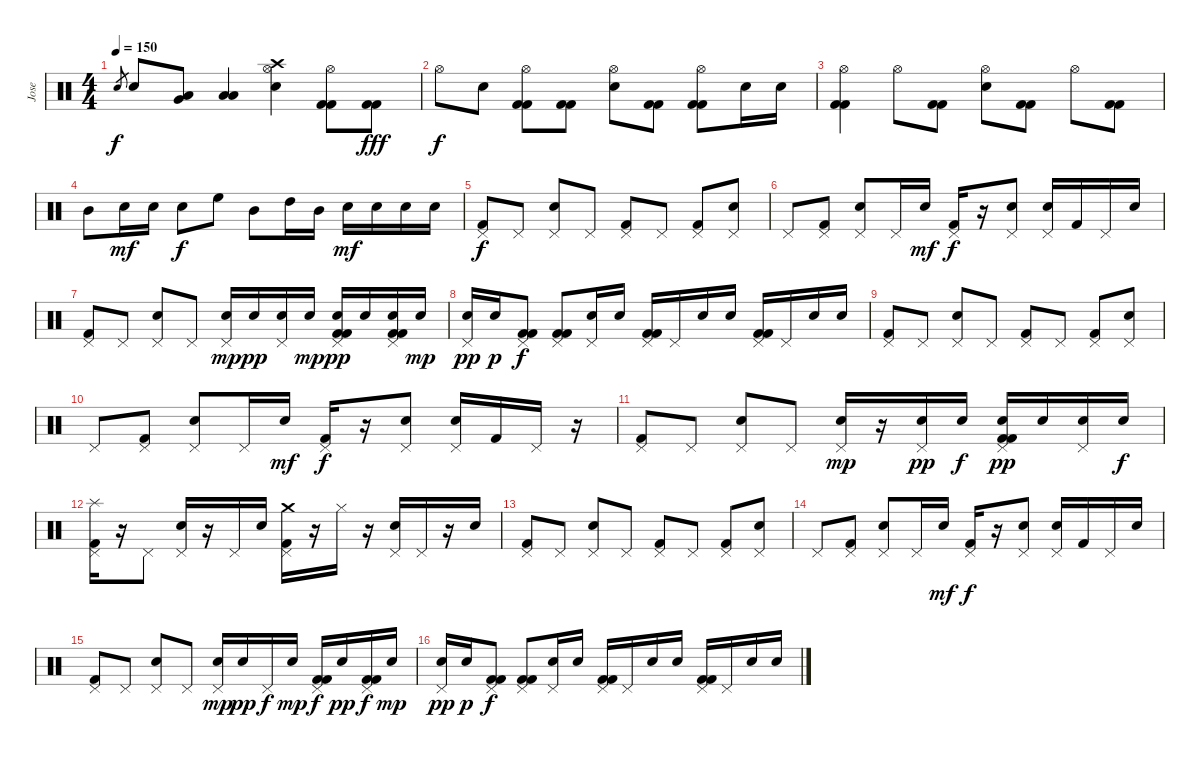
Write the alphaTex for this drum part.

\track ("Jose" "Jose") {instrument percussion}
\staff {score}
\articulation defaults
\ts (4 4)
\tempo 150
\clef neutral
\ks c "Electric Snare (hit)".8{gr dy f} "Electric Snare (hit)".8
("Very Low Tom (hit)" "Low Tom (hit)").8 ("Low Floor Tom (hit)" "Low Tom (hit)").4 ("Hi-Hat (open)" "Crash high (hit)" "Electric Snare (hit)").4 ("Hi-Hat (open)" "Kick (hit) 2" "Kick (hit) 2").8 ("Kick (hit) 2" "Kick (hit) 2").8{dy fff} |
"Hi-Hat (open)".8{dy f} "Electric Snare (hit)".8 ("Hi-Hat (open)" "Kick (hit) 2" "Kick (hit) 2").8 ("Kick (hit) 2" "Kick (hit) 2").8 ("Hi-Hat (open)" "Electric Snare (hit)").8 ("Kick (hit) 2" "Kick (hit) 2").8 ("Hi-Hat (open)" "Kick (hit) 2" "Kick (hit) 2").8 "Electric Snare (hit)".16 "Electric Snare (hit)".16 |
("Hi-Hat (open)" "Kick (hit) 2" "Kick (hit) 2").4 "Hi-Hat (open)".8 ("Kick (hit) 2" "Kick (hit) 2").8 ("Hi-Hat (open)" "Electric Snare (hit)").8 ("Kick (hit) 2" "Kick (hit) 2").8 "Hi-Hat (open)".8 ("Kick (hit) 2" "Kick (hit) 2").8 |
"Mid Tom (hit)".8 "Electric Snare (hit)".16{dy mf} "Electric Snare (hit)".16 "Electric Snare (hit)".8{dy f} "High Floor Tom (hit)".8 "Mid Tom (hit)".8 "High Tom (hit)".16 "Mid Tom (hit)".16 "Electric Snare (hit)".16{dy mf} "Electric Snare (hit)".16 "Electric Snare (hit)".16 "Electric Snare (hit)".16 |
("Pedal Hi-Hat (hit)" "Kick (hit) 2").8{dy f} "Pedal Hi-Hat (hit)".8 ("Pedal Hi-Hat (hit)" "Electric Snare (hit)").8 "Pedal Hi-Hat (hit)".8 ("Pedal Hi-Hat (hit)" "Kick (hit) 2").8 "Pedal Hi-Hat (hit)".8 ("Pedal Hi-Hat (hit)" "Kick (hit) 2").8 ("Pedal Hi-Hat (hit)" "Electric Snare (hit)").8 |
"Pedal Hi-Hat (hit)".8 ("Pedal Hi-Hat (hit)" "Kick (hit) 2").8 ("Pedal Hi-Hat (hit)" "Electric Snare (hit)").8 "Pedal Hi-Hat (hit)".16 "Electric Snare (hit)".16{dy mf} ("Pedal Hi-Hat (hit)" "Kick (hit) 2").16{dy f} r.16 ("Pedal Hi-Hat (hit)" "Electric Snare (hit)").8 ("Pedal Hi-Hat (hit)" "Electric Snare (hit)").16 "Kick (hit) 2".16 "Pedal Hi-Hat (hit)".16 "Electric Snare (hit)".16 |
("Pedal Hi-Hat (hit)" "Kick (hit) 2").8 "Pedal Hi-Hat (hit)".8 ("Pedal Hi-Hat (hit)" "Electric Snare (hit)").8 "Pedal Hi-Hat (hit)".8 ("Pedal Hi-Hat (hit)" "Electric Snare (hit)").16{dy mp} "Electric Snare (hit)".16{dy pp} ("Pedal Hi-Hat (hit)" "Electric Snare (hit)").16 "Electric Snare (hit)".16{dy mp} ("Pedal Hi-Hat (hit)" "Electric Snare (hit)" "Kick (hit) 2" "Kick (hit) 2").16{dy pp} "Electric Snare (hit)".16 ("Pedal Hi-Hat (hit)" "Electric Snare (hit)" "Kick (hit) 2" "Kick (hit) 2").16 "Electric Snare (hit)".16{dy mp} |
("Pedal Hi-Hat (hit)" "Electric Snare (hit)").16{dy pp} "Electric Snare (hit)".16{dy p} ("Pedal Hi-Hat (hit)" "Kick (hit) 2" "Kick (hit) 2").8{dy f} ("Pedal Hi-Hat (hit)" "Kick (hit) 2" "Kick (hit) 2").8 ("Pedal Hi-Hat (hit)" "Electric Snare (hit)").16 "Electric Snare (hit)".16 ("Pedal Hi-Hat (hit)" "Kick (hit) 2" "Kick (hit) 2").16 "Pedal Hi-Hat (hit)".16 "Electric Snare (hit)".16 "Electric Snare (hit)".16 ("Pedal Hi-Hat (hit)" "Kick (hit) 2" "Kick (hit) 2").16 "Pedal Hi-Hat (hit)".16 "Electric Snare (hit)".16 "Electric Snare (hit)".16 |
("Pedal Hi-Hat (hit)" "Kick (hit) 2").8 "Pedal Hi-Hat (hit)".8 ("Pedal Hi-Hat (hit)" "Electric Snare (hit)").8 "Pedal Hi-Hat (hit)".8 ("Pedal Hi-Hat (hit)" "Kick (hit) 2").8 "Pedal Hi-Hat (hit)".8 ("Pedal Hi-Hat (hit)" "Kick (hit) 2").8 ("Pedal Hi-Hat (hit)" "Electric Snare (hit)").8 |
"Pedal Hi-Hat (hit)".8 ("Pedal Hi-Hat (hit)" "Kick (hit) 2").8 ("Pedal Hi-Hat (hit)" "Electric Snare (hit)").8 "Pedal Hi-Hat (hit)".16 "Electric Snare (hit)".16{dy mf} ("Pedal Hi-Hat (hit)" "Kick (hit) 2").16{dy f} r.16 ("Pedal Hi-Hat (hit)" "Electric Snare (hit)").8 ("Pedal Hi-Hat (hit)" "Electric Snare (hit)").16 "Kick (hit) 2".16 "Pedal Hi-Hat (hit)".16 r.16 |
("Pedal Hi-Hat (hit)" "Kick (hit) 2").8 "Pedal Hi-Hat (hit)".8 ("Pedal Hi-Hat (hit)" "Electric Snare (hit)").8 "Pedal Hi-Hat (hit)".8 ("Pedal Hi-Hat (hit)" "Electric Snare (hit)").16{dy mp} r.16 ("Pedal Hi-Hat (hit)" "Electric Snare (hit)").16{dy pp} "Electric Snare (hit)".16{dy f} ("Pedal Hi-Hat (hit)" "Electric Snare (hit)" "Kick (hit) 2" "Kick (hit) 2").16{dy pp} "Electric Snare (hit)".16 ("Pedal Hi-Hat (hit)" "Electric Snare (hit)").16 "Electric Snare (hit)".16{dy f} |
("Pedal Hi-Hat (hit)" "Splash (hit)" "Kick (hit) 2").16 r.16 "Pedal Hi-Hat (hit)".8 ("Pedal Hi-Hat (hit)" "Electric Snare (hit)").16 r.16 "Pedal Hi-Hat (hit)".16 "Electric Snare (hit)".16 ("Pedal Hi-Hat (hit)" "Crash medium (hit)" "Kick (hit) 2").16 r.16 "Hi-Hat (closed)".16 r.16 ("Pedal Hi-Hat (hit)" "Electric Snare (hit)").16 "Pedal Hi-Hat (hit)".16 r.16 "Electric Snare (hit)".16 |
("Pedal Hi-Hat (hit)" "Kick (hit) 2").8 "Pedal Hi-Hat (hit)".8 ("Pedal Hi-Hat (hit)" "Electric Snare (hit)").8 "Pedal Hi-Hat (hit)".8 ("Pedal Hi-Hat (hit)" "Kick (hit) 2").8 "Pedal Hi-Hat (hit)".8 ("Pedal Hi-Hat (hit)" "Kick (hit) 2").8 ("Pedal Hi-Hat (hit)" "Electric Snare (hit)").8 |
"Pedal Hi-Hat (hit)".8 ("Pedal Hi-Hat (hit)" "Kick (hit) 2").8 ("Pedal Hi-Hat (hit)" "Electric Snare (hit)").8 "Pedal Hi-Hat (hit)".16 "Electric Snare (hit)".16{dy mf} ("Pedal Hi-Hat (hit)" "Kick (hit) 2").16{dy f} r.16 ("Pedal Hi-Hat (hit)" "Electric Snare (hit)").8 ("Pedal Hi-Hat (hit)" "Electric Snare (hit)").16 "Kick (hit) 2".16 "Pedal Hi-Hat (hit)".16 "Electric Snare (hit)".16 |
("Pedal Hi-Hat (hit)" "Kick (hit) 2").8 "Pedal Hi-Hat (hit)".8 ("Pedal Hi-Hat (hit)" "Electric Snare (hit)").8 "Pedal Hi-Hat (hit)".8 ("Pedal Hi-Hat (hit)" "Electric Snare (hit)").16{dy mp} "Electric Snare (hit)".16{dy pp} "Pedal Hi-Hat (hit)".16{dy f} "Electric Snare (hit)".16{dy mp} ("Pedal Hi-Hat (hit)" "Kick (hit) 2" "Kick (hit) 2").16{dy f} "Electric Snare (hit)".16{dy pp} ("Pedal Hi-Hat (hit)" "Kick (hit) 2" "Kick (hit) 2").16{dy f} "Electric Snare (hit)".16{dy mp} |
("Pedal Hi-Hat (hit)" "Electric Snare (hit)").16{dy pp} "Electric Snare (hit)".16{dy p} ("Pedal Hi-Hat (hit)" "Kick (hit) 2" "Kick (hit) 2").8{dy f} ("Pedal Hi-Hat (hit)" "Kick (hit) 2" "Kick (hit) 2").8 ("Pedal Hi-Hat (hit)" "Electric Snare (hit)").16 "Electric Snare (hit)".16 ("Pedal Hi-Hat (hit)" "Kick (hit) 2" "Kick (hit) 2").16 "Pedal Hi-Hat (hit)".16 "Electric Snare (hit)".16 "Electric Snare (hit)".16 ("Pedal Hi-Hat (hit)" "Kick (hit) 2" "Kick (hit) 2").16 "Pedal Hi-Hat (hit)".16 "Electric Snare (hit)".16 "Electric Snare (hit)".16
